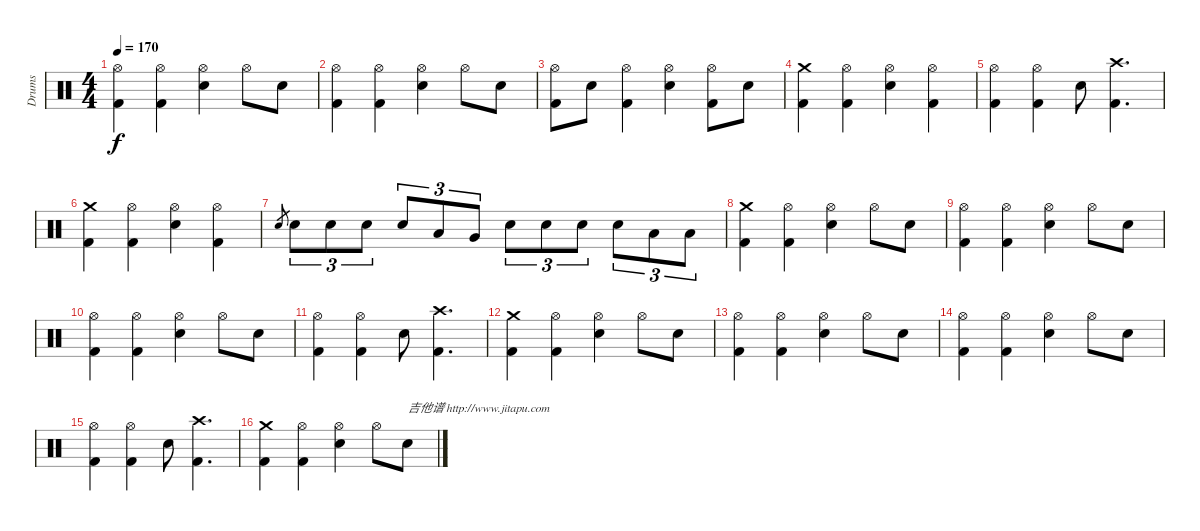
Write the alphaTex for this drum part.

\track ("Drums" "Drums") {instrument percussion}
\staff {score}
\articulation defaults
\ts (4 4)
\tempo 170
\clef neutral
\ks c
("Hi-Hat (open)" "Kick (hit) 2").4{dy f} ("Hi-Hat (open)" "Kick (hit) 2").4 ("Hi-Hat (open)" "Electric Snare (hit)").4 "Hi-Hat (open)".8 "Electric Snare (hit)".8 |
("Hi-Hat (open)" "Kick (hit) 2").4 ("Hi-Hat (open)" "Kick (hit) 2").4 ("Hi-Hat (open)" "Electric Snare (hit)").4 "Hi-Hat (open)".8 "Electric Snare (hit)".8 |
("Hi-Hat (open)" "Kick (hit) 2").8 "Electric Snare (hit)".8 ("Hi-Hat (open)" "Kick (hit) 2").4 ("Hi-Hat (open)" "Electric Snare (hit)").4 ("Hi-Hat (open)" "Kick (hit) 2").8 "Electric Snare (hit)".8 |
("Crash medium (hit)" "Kick (hit) 2").4 ("Hi-Hat (open)" "Kick (hit) 2").4 ("Hi-Hat (open)" "Electric Snare (hit)").4 ("Hi-Hat (open)" "Kick (hit) 2").4 |
("Hi-Hat (open)" "Kick (hit) 2").4 ("Hi-Hat (open)" "Kick (hit) 2").4 "Electric Snare (hit)".8 ("Crash high (hit)" "Kick (hit) 2").4{d} |
("Crash medium (hit)" "Kick (hit) 2").4 ("Hi-Hat (open)" "Kick (hit) 2").4 ("Hi-Hat (open)" "Electric Snare (hit)").4 ("Hi-Hat (open)" "Kick (hit) 2").4 |
"Electric Snare (hit)".8{gr} "Electric Snare (hit)".8{tu (3 2)} "Electric Snare (hit)".8{tu (3 2)} "Electric Snare (hit)".8{tu (3 2)} "Electric Snare (hit)".8{tu (3 2)} "Low Tom (hit)".8{tu (3 2)} "Very Low Tom (hit)".8{tu (3 2)} "Electric Snare (hit)".8{tu (3 2)} "Electric Snare (hit)".8{tu (3 2)} "Electric Snare (hit)".8{tu (3 2)} "Electric Snare (hit)".8{tu (3 2)} "Low Tom (hit)".8{tu (3 2)} "Low Tom (hit)".8{tu (3 2)} |
("Crash medium (hit)" "Kick (hit) 2").4 ("Hi-Hat (open)" "Kick (hit) 2").4 ("Hi-Hat (open)" "Electric Snare (hit)").4 "Hi-Hat (open)".8 "Electric Snare (hit)".8 |
("Hi-Hat (open)" "Kick (hit) 2").4 ("Hi-Hat (open)" "Kick (hit) 2").4 ("Hi-Hat (open)" "Electric Snare (hit)").4 "Hi-Hat (open)".8 "Electric Snare (hit)".8 |
("Hi-Hat (open)" "Kick (hit) 2").4 ("Hi-Hat (open)" "Kick (hit) 2").4 ("Hi-Hat (open)" "Electric Snare (hit)").4 "Hi-Hat (open)".8 "Electric Snare (hit)".8 |
("Hi-Hat (open)" "Kick (hit) 2").4 ("Hi-Hat (open)" "Kick (hit) 2").4 "Electric Snare (hit)".8 ("Crash high (hit)" "Kick (hit) 2").4{d} |
("Crash medium (hit)" "Kick (hit) 2").4 ("Hi-Hat (open)" "Kick (hit) 2").4 ("Hi-Hat (open)" "Electric Snare (hit)").4 "Hi-Hat (open)".8 "Electric Snare (hit)".8 |
("Hi-Hat (open)" "Kick (hit) 2").4 ("Hi-Hat (open)" "Kick (hit) 2").4 ("Hi-Hat (open)" "Electric Snare (hit)").4 "Hi-Hat (open)".8 "Electric Snare (hit)".8 |
("Hi-Hat (open)" "Kick (hit) 2").4 ("Hi-Hat (open)" "Kick (hit) 2").4 ("Hi-Hat (open)" "Electric Snare (hit)").4 "Hi-Hat (open)".8 "Electric Snare (hit)".8 |
("Hi-Hat (open)" "Kick (hit) 2").4 ("Hi-Hat (open)" "Kick (hit) 2").4 "Electric Snare (hit)".8 ("Crash high (hit)" "Kick (hit) 2").4{d} |
("Crash medium (hit)" "Kick (hit) 2").4 ("Hi-Hat (open)" "Kick (hit) 2").4 ("Hi-Hat (open)" "Electric Snare (hit)").4 "Hi-Hat (open)".8 "Electric Snare (hit)".8{txt "吉他谱 http://www.jitapu.com"}
